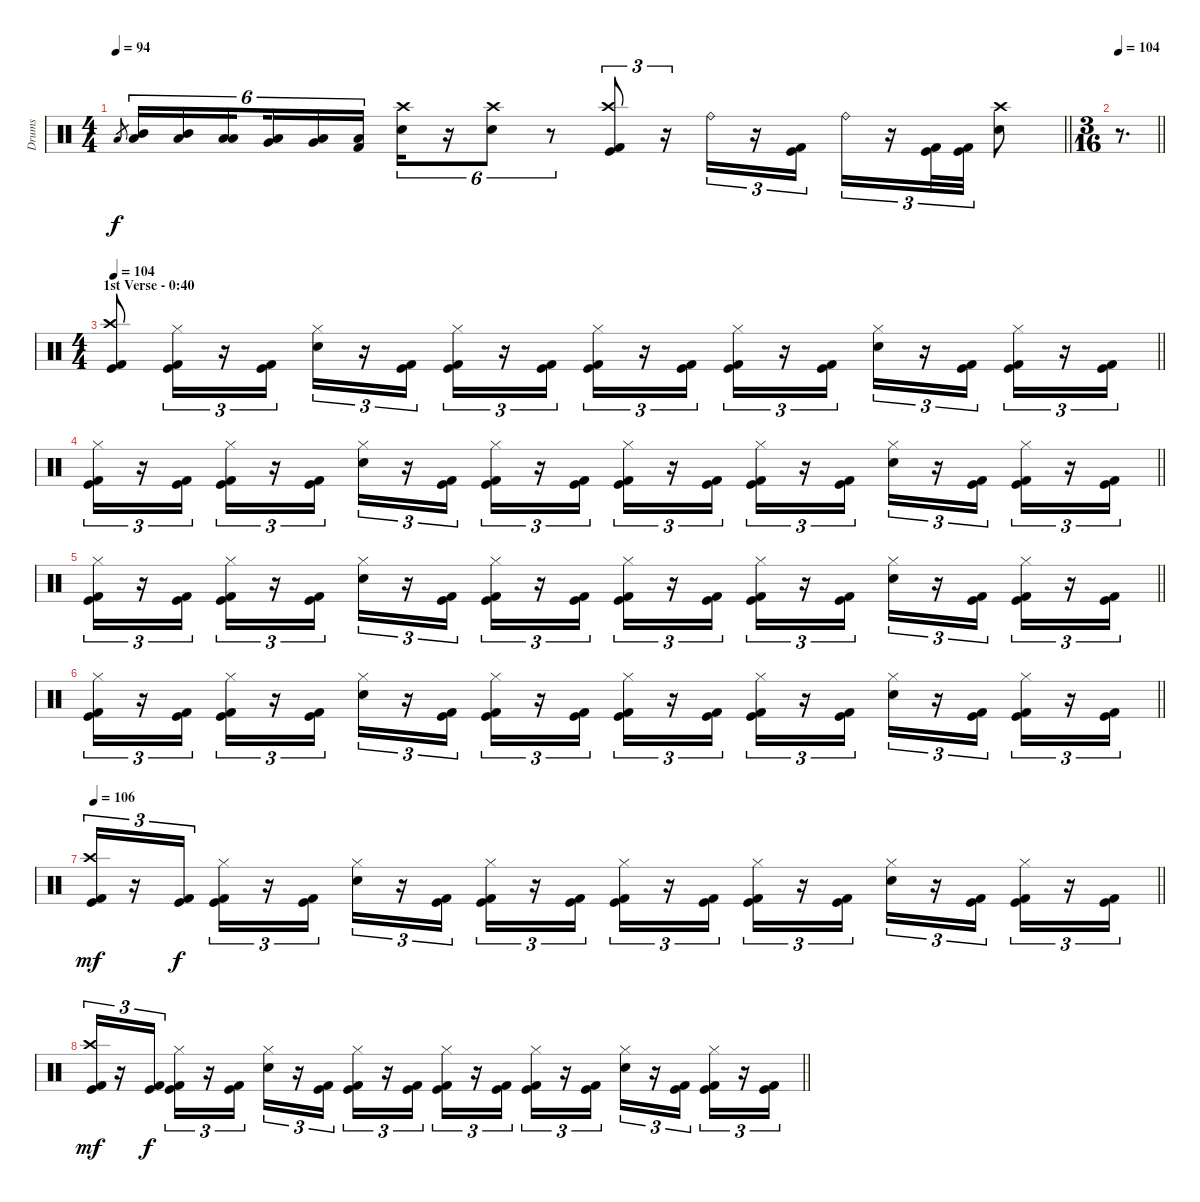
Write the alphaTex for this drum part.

\track ("Drums" "Drums") {instrument percussion}
\staff {score}
\articulation defaults
\ts (4 4)
\tempo 94
\clef neutral
\barLineRight lightlight
\ks c "Low Tom (hit)".8{gr dy f}
("Mid Tom (hit)" "Low Tom (hit)").16{tu (6 4)} ("Mid Tom (hit)" "Low Tom (hit)").16{tu (6 4)} ("Low Tom (hit)" "Low Tom (hit)").16{tu (6 4) beam splitsecondary} ("Very Low Tom (hit)" "Low Tom (hit)").16{tu (6 4)} ("Very Low Tom (hit)" "Low Tom (hit)").16{tu (6 4)} ("Low Floor Tom (hit)" "Kick (hit) 2").16{tu (6 4)} ("Crash high (hit)" "Electric Snare (hit)").16{tu (6 4)} r.16{tu (6 4)} ("Crash high (hit)" "Electric Snare (hit)").8{tu (6 4)} r.8{tu (6 4)} ("Crash high (hit)" "Kick (hit)" "Kick (hit) 2").8{tu (3 2)} r.16{tu (3 2)} "Ride (bell)".16{tu (3 2)} r.16{tu (3 2)} ("Kick (hit)" "Kick (hit) 2").16{tu (3 2)} "Ride (bell)".16{tu (3 2)} r.16{tu (3 2)} ("Kick (hit)" "Kick (hit) 2").32{tu (3 2)} ("Kick (hit)" "Kick (hit) 2").32{tu (3 2)} ("Crash high (hit)" "Electric Snare (hit)").8 |
\ts (3 16)
\tempo 104
\barLineRight lightlight
r.8{d} |
\ts (4 4)
\section ("" "1st Verse - 0:40")
\tempo 104
\barLineRight lightlight
("Crash high (hit)" "Kick (hit)" "Kick (hit) 2").8 ("Hi-Hat (closed)" "Kick (hit)" "Kick (hit) 2").16{tu (3 2)} r.16{tu (3 2)} ("Kick (hit)" "Kick (hit) 2").16{tu (3 2)} ("Hi-Hat (closed)" "Electric Snare (hit)").16{tu (3 2)} r.16{tu (3 2)} ("Kick (hit)" "Kick (hit) 2").16{tu (3 2)} ("Hi-Hat (closed)" "Kick (hit)" "Kick (hit) 2").16{tu (3 2)} r.16{tu (3 2)} ("Kick (hit)" "Kick (hit) 2").16{tu (3 2)} ("Hi-Hat (closed)" "Kick (hit)" "Kick (hit) 2").16{tu (3 2)} r.16{tu (3 2)} ("Kick (hit)" "Kick (hit) 2").16{tu (3 2)} ("Hi-Hat (closed)" "Kick (hit)" "Kick (hit) 2").16{tu (3 2)} r.16{tu (3 2)} ("Kick (hit)" "Kick (hit) 2").16{tu (3 2)} ("Hi-Hat (closed)" "Electric Snare (hit)").16{tu (3 2)} r.16{tu (3 2)} ("Kick (hit)" "Kick (hit) 2").16{tu (3 2)} ("Hi-Hat (closed)" "Kick (hit)" "Kick (hit) 2").16{tu (3 2)} r.16{tu (3 2)} ("Kick (hit)" "Kick (hit) 2").16{tu (3 2)} |
\barLineRight lightlight
("Hi-Hat (closed)" "Kick (hit)" "Kick (hit) 2").16{tu (3 2)} r.16{tu (3 2)} ("Kick (hit)" "Kick (hit) 2").16{tu (3 2)} ("Hi-Hat (closed)" "Kick (hit)" "Kick (hit) 2").16{tu (3 2)} r.16{tu (3 2)} ("Kick (hit)" "Kick (hit) 2").16{tu (3 2)} ("Hi-Hat (closed)" "Electric Snare (hit)").16{tu (3 2)} r.16{tu (3 2)} ("Kick (hit)" "Kick (hit) 2").16{tu (3 2)} ("Hi-Hat (closed)" "Kick (hit)" "Kick (hit) 2").16{tu (3 2)} r.16{tu (3 2)} ("Kick (hit)" "Kick (hit) 2").16{tu (3 2)} ("Hi-Hat (closed)" "Kick (hit)" "Kick (hit) 2").16{tu (3 2)} r.16{tu (3 2)} ("Kick (hit)" "Kick (hit) 2").16{tu (3 2)} ("Hi-Hat (closed)" "Kick (hit)" "Kick (hit) 2").16{tu (3 2)} r.16{tu (3 2)} ("Kick (hit)" "Kick (hit) 2").16{tu (3 2)} ("Hi-Hat (closed)" "Electric Snare (hit)").16{tu (3 2)} r.16{tu (3 2)} ("Kick (hit)" "Kick (hit) 2").16{tu (3 2)} ("Hi-Hat (closed)" "Kick (hit)" "Kick (hit) 2").16{tu (3 2)} r.16{tu (3 2)} ("Kick (hit)" "Kick (hit) 2").16{tu (3 2)} |
\barLineRight lightlight
("Hi-Hat (closed)" "Kick (hit)" "Kick (hit) 2").16{tu (3 2)} r.16{tu (3 2)} ("Kick (hit)" "Kick (hit) 2").16{tu (3 2)} ("Hi-Hat (closed)" "Kick (hit)" "Kick (hit) 2").16{tu (3 2)} r.16{tu (3 2)} ("Kick (hit)" "Kick (hit) 2").16{tu (3 2)} ("Hi-Hat (closed)" "Electric Snare (hit)").16{tu (3 2)} r.16{tu (3 2)} ("Kick (hit)" "Kick (hit) 2").16{tu (3 2)} ("Hi-Hat (closed)" "Kick (hit)" "Kick (hit) 2").16{tu (3 2)} r.16{tu (3 2)} ("Kick (hit)" "Kick (hit) 2").16{tu (3 2)} ("Hi-Hat (closed)" "Kick (hit)" "Kick (hit) 2").16{tu (3 2)} r.16{tu (3 2)} ("Kick (hit)" "Kick (hit) 2").16{tu (3 2)} ("Hi-Hat (closed)" "Kick (hit)" "Kick (hit) 2").16{tu (3 2)} r.16{tu (3 2)} ("Kick (hit)" "Kick (hit) 2").16{tu (3 2)} ("Hi-Hat (closed)" "Electric Snare (hit)").16{tu (3 2)} r.16{tu (3 2)} ("Kick (hit)" "Kick (hit) 2").16{tu (3 2)} ("Hi-Hat (closed)" "Kick (hit)" "Kick (hit) 2").16{tu (3 2)} r.16{tu (3 2)} ("Kick (hit)" "Kick (hit) 2").16{tu (3 2)} |
\barLineRight lightlight
("Hi-Hat (closed)" "Kick (hit)" "Kick (hit) 2").16{tu (3 2)} r.16{tu (3 2)} ("Kick (hit)" "Kick (hit) 2").16{tu (3 2)} ("Hi-Hat (closed)" "Kick (hit)" "Kick (hit) 2").16{tu (3 2)} r.16{tu (3 2)} ("Kick (hit)" "Kick (hit) 2").16{tu (3 2)} ("Hi-Hat (closed)" "Electric Snare (hit)").16{tu (3 2)} r.16{tu (3 2)} ("Kick (hit)" "Kick (hit) 2").16{tu (3 2)} ("Hi-Hat (closed)" "Kick (hit)" "Kick (hit) 2").16{tu (3 2)} r.16{tu (3 2)} ("Kick (hit)" "Kick (hit) 2").16{tu (3 2)} ("Hi-Hat (closed)" "Kick (hit)" "Kick (hit) 2").16{tu (3 2)} r.16{tu (3 2)} ("Kick (hit)" "Kick (hit) 2").16{tu (3 2)} ("Hi-Hat (closed)" "Kick (hit)" "Kick (hit) 2").16{tu (3 2)} r.16{tu (3 2)} ("Kick (hit)" "Kick (hit) 2").16{tu (3 2)} ("Hi-Hat (closed)" "Electric Snare (hit)").16{tu (3 2)} r.16{tu (3 2)} ("Kick (hit)" "Kick (hit) 2").16{tu (3 2)} ("Hi-Hat (closed)" "Kick (hit)" "Kick (hit) 2").16{tu (3 2)} r.16{tu (3 2)} ("Kick (hit)" "Kick (hit) 2").16{tu (3 2)} |
\tempo 106
\barLineRight lightlight
("Crash high (hit)" "Kick (hit)" "Kick (hit) 2").16{tu (3 2) dy mf} r.16{tu (3 2)} ("Kick (hit)" "Kick (hit) 2").16{tu (3 2) dy f} ("Hi-Hat (closed)" "Kick (hit)" "Kick (hit) 2").16{tu (3 2)} r.16{tu (3 2)} ("Kick (hit)" "Kick (hit) 2").16{tu (3 2)} ("Hi-Hat (closed)" "Electric Snare (hit)").16{tu (3 2)} r.16{tu (3 2)} ("Kick (hit)" "Kick (hit) 2").16{tu (3 2)} ("Hi-Hat (closed)" "Kick (hit)" "Kick (hit) 2").16{tu (3 2)} r.16{tu (3 2)} ("Kick (hit)" "Kick (hit) 2").16{tu (3 2)} ("Hi-Hat (closed)" "Kick (hit)" "Kick (hit) 2").16{tu (3 2)} r.16{tu (3 2)} ("Kick (hit)" "Kick (hit) 2").16{tu (3 2)} ("Hi-Hat (closed)" "Kick (hit)" "Kick (hit) 2").16{tu (3 2)} r.16{tu (3 2)} ("Kick (hit)" "Kick (hit) 2").16{tu (3 2)} ("Hi-Hat (closed)" "Electric Snare (hit)").16{tu (3 2)} r.16{tu (3 2)} ("Kick (hit)" "Kick (hit) 2").16{tu (3 2)} ("Hi-Hat (closed)" "Kick (hit)" "Kick (hit) 2").16{tu (3 2)} r.16{tu (3 2)} ("Kick (hit)" "Kick (hit) 2").16{tu (3 2)} |
\barLineRight lightlight
("Crash high (hit)" "Kick (hit)" "Kick (hit) 2").16{tu (3 2) dy mf} r.16{tu (3 2)} ("Kick (hit)" "Kick (hit) 2").16{tu (3 2) dy f} ("Hi-Hat (closed)" "Kick (hit)" "Kick (hit) 2").16{tu (3 2)} r.16{tu (3 2)} ("Kick (hit)" "Kick (hit) 2").16{tu (3 2)} ("Hi-Hat (closed)" "Electric Snare (hit)").16{tu (3 2)} r.16{tu (3 2)} ("Kick (hit)" "Kick (hit) 2").16{tu (3 2)} ("Hi-Hat (closed)" "Kick (hit)" "Kick (hit) 2").16{tu (3 2)} r.16{tu (3 2)} ("Kick (hit)" "Kick (hit) 2").16{tu (3 2)} ("Hi-Hat (closed)" "Kick (hit)" "Kick (hit) 2").16{tu (3 2)} r.16{tu (3 2)} ("Kick (hit)" "Kick (hit) 2").16{tu (3 2)} ("Hi-Hat (closed)" "Kick (hit)" "Kick (hit) 2").16{tu (3 2)} r.16{tu (3 2)} ("Kick (hit)" "Kick (hit) 2").16{tu (3 2)} ("Hi-Hat (closed)" "Electric Snare (hit)").16{tu (3 2)} r.16{tu (3 2)} ("Kick (hit)" "Kick (hit) 2").16{tu (3 2)} ("Hi-Hat (closed)" "Kick (hit)" "Kick (hit) 2").16{tu (3 2)} r.16{tu (3 2)} ("Kick (hit)" "Kick (hit) 2").16{tu (3 2)}
